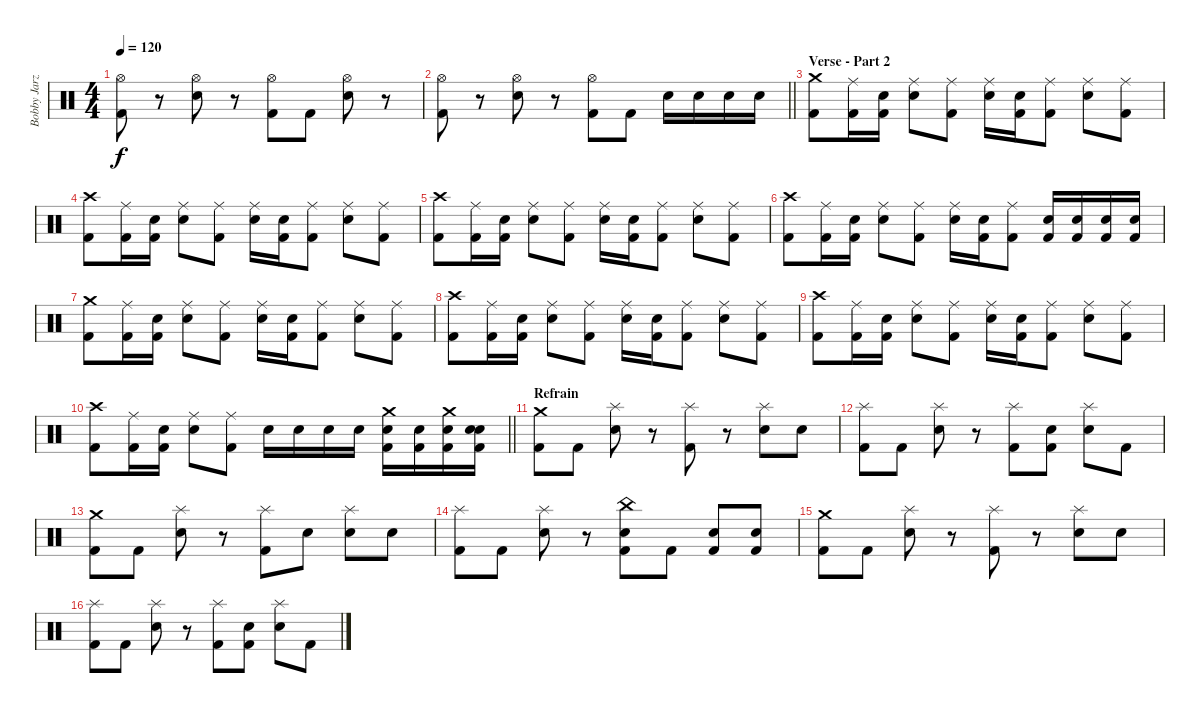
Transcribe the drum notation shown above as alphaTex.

\track ("Bobby Jarzombek - Drums" "Bobby Jarz") {instrument percussion}
\staff {score}
\articulation defaults
\ts (4 4)
\tempo 120
\clef neutral
\ks c
("Hi-Hat (open)" "Kick (hit) 2").8{dy f} r.8 ("Hi-Hat (open)" "Electric Snare (hit)").8 r.8 ("Hi-Hat (open)" "Kick (hit) 2").8 "Kick (hit) 2".8 ("Hi-Hat (open)" "Electric Snare (hit)").8 r.8 |
\barLineRight lightlight
("Hi-Hat (open)" "Kick (hit) 2").8 r.8 ("Hi-Hat (open)" "Electric Snare (hit)").8 r.8 ("Hi-Hat (open)" "Kick (hit) 2").8 "Kick (hit) 2".8 "Electric Snare (hit)".16 "Electric Snare (hit)".16 "Electric Snare (hit)".16 "Electric Snare (hit)".16 |
\section ("" "Verse - Part 2")
("Crash medium (hit)" "Kick (hit) 2").8 ("Ride (middle)" "Kick (hit) 2").16 ("Snare (hit)" "Kick (hit) 2").16 ("Ride (middle)" "Electric Snare (hit)").8 ("Ride (middle)" "Kick (hit) 2").8 ("Ride (middle)" "Electric Snare (hit)").16 ("Snare (hit)" "Kick (hit) 2").16 ("Ride (middle)" "Kick (hit) 2").8 ("Ride (middle)" "Electric Snare (hit)").8 ("Ride (middle)" "Kick (hit) 2").8 |
("Crash high (hit)" "Kick (hit) 2").8 ("Ride (middle)" "Kick (hit) 2").16 ("Snare (hit)" "Kick (hit) 2").16 ("Ride (middle)" "Electric Snare (hit)").8 ("Ride (middle)" "Kick (hit) 2").8 ("Ride (middle)" "Electric Snare (hit)").16 ("Snare (hit)" "Kick (hit) 2").16 ("Ride (middle)" "Kick (hit) 2").8 ("Ride (middle)" "Electric Snare (hit)").8 ("Ride (middle)" "Kick (hit) 2").8 |
("Crash high (hit)" "Kick (hit) 2").8 ("Ride (middle)" "Kick (hit) 2").16 ("Snare (hit)" "Kick (hit) 2").16 ("Ride (middle)" "Electric Snare (hit)").8 ("Ride (middle)" "Kick (hit) 2").8 ("Ride (middle)" "Electric Snare (hit)").16 ("Snare (hit)" "Kick (hit) 2").16 ("Ride (middle)" "Kick (hit) 2").8 ("Ride (middle)" "Electric Snare (hit)").8 ("Ride (middle)" "Kick (hit) 2").8 |
("Crash high (hit)" "Kick (hit) 2").8 ("Ride (middle)" "Kick (hit) 2").16 ("Snare (hit)" "Kick (hit) 2").16 ("Ride (middle)" "Electric Snare (hit)").8 ("Ride (middle)" "Kick (hit) 2").8 ("Ride (middle)" "Electric Snare (hit)").16 ("Snare (hit)" "Kick (hit) 2").16 ("Ride (middle)" "Kick (hit) 2").8 ("Electric Snare (hit)" "Kick (hit) 2").16 ("Electric Snare (hit)" "Kick (hit) 2").16 ("Electric Snare (hit)" "Kick (hit) 2").16 ("Electric Snare (hit)" "Kick (hit) 2").16 |
("Crash medium (hit)" "Kick (hit) 2").8 ("Ride (middle)" "Kick (hit) 2").16 ("Snare (hit)" "Kick (hit) 2").16 ("Ride (middle)" "Electric Snare (hit)").8 ("Ride (middle)" "Kick (hit) 2").8 ("Ride (middle)" "Electric Snare (hit)").16 ("Snare (hit)" "Kick (hit) 2").16 ("Ride (middle)" "Kick (hit) 2").8 ("Ride (middle)" "Electric Snare (hit)").8 ("Ride (middle)" "Kick (hit) 2").8 |
("Crash high (hit)" "Kick (hit) 2").8 ("Ride (middle)" "Kick (hit) 2").16 ("Snare (hit)" "Kick (hit) 2").16 ("Ride (middle)" "Electric Snare (hit)").8 ("Ride (middle)" "Kick (hit) 2").8 ("Ride (middle)" "Electric Snare (hit)").16 ("Snare (hit)" "Kick (hit) 2").16 ("Ride (middle)" "Kick (hit) 2").8 ("Ride (middle)" "Electric Snare (hit)").8 ("Ride (middle)" "Kick (hit) 2").8 |
("Crash high (hit)" "Kick (hit) 2").8 ("Ride (middle)" "Kick (hit) 2").16 ("Snare (hit)" "Kick (hit) 2").16 ("Ride (middle)" "Electric Snare (hit)").8 ("Ride (middle)" "Kick (hit) 2").8 ("Ride (middle)" "Electric Snare (hit)").16 ("Snare (hit)" "Kick (hit) 2").16 ("Ride (middle)" "Kick (hit) 2").8 ("Ride (middle)" "Electric Snare (hit)").8 ("Ride (middle)" "Kick (hit) 2").8 |
\barLineRight lightlight
("Crash high (hit)" "Kick (hit) 2").8 ("Ride (middle)" "Kick (hit) 2").16 ("Snare (hit)" "Kick (hit) 2").16 ("Ride (middle)" "Electric Snare (hit)").8 ("Ride (middle)" "Kick (hit) 2").8 "Electric Snare (hit)".16 "Electric Snare (hit)".16 "Electric Snare (hit)".16 "Electric Snare (hit)".16 ("Crash medium (hit)" "Electric Snare (hit)" "Kick (hit) 2").16 ("Electric Snare (hit)" "Kick (hit) 2").16 ("Crash medium (hit)" "Electric Snare (hit)" "Kick (hit) 2").16 ("Snare (hit)" "Electric Snare (hit)" "Kick (hit) 2").16 |
\section ("" "Refrain")
("Crash medium (hit)" "Kick (hit) 2").8 "Kick (hit) 2".8 ("Splash (hit)" "Electric Snare (hit)").8 r.8 ("Splash (hit)" "Kick (hit) 2").8 r.8 ("Splash (hit)" "Electric Snare (hit)").8 "Snare (hit)".8 |
("Splash (hit)" "Kick (hit) 2").8 "Kick (hit) 2".8 ("Splash (hit)" "Electric Snare (hit)").8 r.8 ("Splash (hit)" "Kick (hit) 2").8 ("Snare (hit)" "Kick (hit) 2").8 ("Splash (hit)" "Electric Snare (hit)").8 "Kick (hit) 2".8 |
("Crash medium (hit)" "Kick (hit) 2").8 "Kick (hit) 2".8 ("Splash (hit)" "Electric Snare (hit)").8 r.8 ("Splash (hit)" "Kick (hit) 2").8 "Snare (hit)".8 ("Splash (hit)" "Electric Snare (hit)").8 "Snare (hit)".8 |
("Splash (hit)" "Kick (hit) 2").8 "Kick (hit) 2".8 ("Splash (hit)" "Electric Snare (hit)").8 r.8 ("China (hit)" "Electric Snare (hit)" "Kick (hit) 2").8 "Kick (hit) 2".8 ("Electric Snare (hit)" "Kick (hit) 2").8 ("Electric Snare (hit)" "Kick (hit) 2").8 |
("Crash medium (hit)" "Kick (hit) 2").8 "Kick (hit) 2".8 ("Splash (hit)" "Electric Snare (hit)").8 r.8 ("Splash (hit)" "Kick (hit) 2").8 r.8 ("Splash (hit)" "Electric Snare (hit)").8 "Snare (hit)".8 |
("Splash (hit)" "Kick (hit) 2").8 "Kick (hit) 2".8 ("Splash (hit)" "Electric Snare (hit)").8 r.8 ("Splash (hit)" "Kick (hit) 2").8 ("Snare (hit)" "Kick (hit) 2").8 ("Splash (hit)" "Electric Snare (hit)").8 "Kick (hit) 2".8
